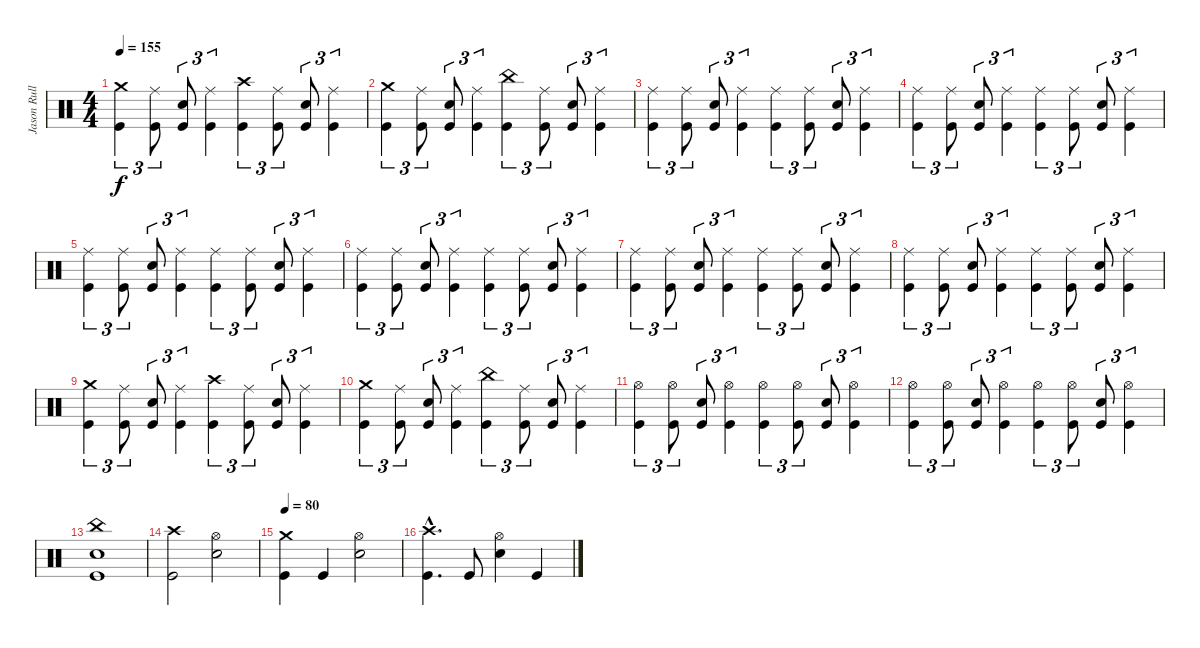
\track ("Jason Rullo - BATTERIE" "Jason Rull") {instrument percussion}
\staff {score}
\articulation defaults
\ts (4 4)
\tempo 155
\clef neutral
\ks c
("Crash medium (hit)" "Kick (hit)").4{tu (3 2) dy f} ("Ride (middle)" "Kick (hit)").8{tu (3 2)} ("Snare (hit) 2" "Kick (hit)").8{tu (3 2)} ("Ride (middle)" "Kick (hit)").4{tu (3 2)} ("Crash high (hit)" "Kick (hit)").4{tu (3 2)} ("Ride (middle)" "Kick (hit)").8{tu (3 2)} ("Snare (hit) 2" "Kick (hit)").8{tu (3 2)} ("Ride (middle)" "Kick (hit)").4{tu (3 2)} |
("Crash medium (hit)" "Kick (hit)").4{tu (3 2)} ("Ride (middle)" "Kick (hit)").8{tu (3 2)} ("Snare (hit) 2" "Kick (hit)").8{tu (3 2)} ("Ride (middle)" "Kick (hit)").4{tu (3 2)} ("China (hit)" "Kick (hit)").4{tu (3 2)} ("Ride (middle)" "Kick (hit)").8{tu (3 2)} ("Snare (hit) 2" "Kick (hit)").8{tu (3 2)} ("Ride (middle)" "Kick (hit)").4{tu (3 2)} |
("Ride (middle)" "Kick (hit)").4{tu (3 2)} ("Ride (middle)" "Kick (hit)").8{tu (3 2)} ("Snare (hit) 2" "Kick (hit)").8{tu (3 2)} ("Ride (middle)" "Kick (hit)").4{tu (3 2)} ("Ride (middle)" "Kick (hit)").4{tu (3 2)} ("Ride (middle)" "Kick (hit)").8{tu (3 2)} ("Snare (hit) 2" "Kick (hit)").8{tu (3 2)} ("Ride (middle)" "Kick (hit)").4{tu (3 2)} |
("Ride (middle)" "Kick (hit)").4{tu (3 2)} ("Ride (middle)" "Kick (hit)").8{tu (3 2)} ("Snare (hit) 2" "Kick (hit)").8{tu (3 2)} ("Ride (middle)" "Kick (hit)").4{tu (3 2)} ("Ride (middle)" "Kick (hit)").4{tu (3 2)} ("Ride (middle)" "Kick (hit)").8{tu (3 2)} ("Snare (hit) 2" "Kick (hit)").8{tu (3 2)} ("Ride (middle)" "Kick (hit)").4{tu (3 2)} |
("Ride (middle)" "Kick (hit)").4{tu (3 2)} ("Ride (middle)" "Kick (hit)").8{tu (3 2)} ("Snare (hit) 2" "Kick (hit)").8{tu (3 2)} ("Ride (middle)" "Kick (hit)").4{tu (3 2)} ("Ride (middle)" "Kick (hit)").4{tu (3 2)} ("Ride (middle)" "Kick (hit)").8{tu (3 2)} ("Snare (hit) 2" "Kick (hit)").8{tu (3 2)} ("Ride (middle)" "Kick (hit)").4{tu (3 2)} |
("Ride (middle)" "Kick (hit)").4{tu (3 2)} ("Ride (middle)" "Kick (hit)").8{tu (3 2)} ("Snare (hit) 2" "Kick (hit)").8{tu (3 2)} ("Ride (middle)" "Kick (hit)").4{tu (3 2)} ("Ride (middle)" "Kick (hit)").4{tu (3 2)} ("Ride (middle)" "Kick (hit)").8{tu (3 2)} ("Snare (hit) 2" "Kick (hit)").8{tu (3 2)} ("Ride (middle)" "Kick (hit)").4{tu (3 2)} |
("Ride (middle)" "Kick (hit)").4{tu (3 2)} ("Ride (middle)" "Kick (hit)").8{tu (3 2)} ("Snare (hit) 2" "Kick (hit)").8{tu (3 2)} ("Ride (middle)" "Kick (hit)").4{tu (3 2)} ("Ride (middle)" "Kick (hit)").4{tu (3 2)} ("Ride (middle)" "Kick (hit)").8{tu (3 2)} ("Snare (hit) 2" "Kick (hit)").8{tu (3 2)} ("Ride (middle)" "Kick (hit)").4{tu (3 2)} |
("Ride (middle)" "Kick (hit)").4{tu (3 2)} ("Ride (middle)" "Kick (hit)").8{tu (3 2)} ("Snare (hit) 2" "Kick (hit)").8{tu (3 2)} ("Ride (middle)" "Kick (hit)").4{tu (3 2)} ("Ride (middle)" "Kick (hit)").4{tu (3 2)} ("Ride (middle)" "Kick (hit)").8{tu (3 2)} ("Snare (hit) 2" "Kick (hit)").8{tu (3 2)} ("Ride (middle)" "Kick (hit)").4{tu (3 2)} |
("Crash medium (hit)" "Kick (hit)").4{tu (3 2)} ("Ride (middle)" "Kick (hit)").8{tu (3 2)} ("Snare (hit) 2" "Kick (hit)").8{tu (3 2)} ("Ride (middle)" "Kick (hit)").4{tu (3 2)} ("Crash high (hit)" "Kick (hit)").4{tu (3 2)} ("Ride (middle)" "Kick (hit)").8{tu (3 2)} ("Snare (hit) 2" "Kick (hit)").8{tu (3 2)} ("Ride (middle)" "Kick (hit)").4{tu (3 2)} |
("Crash medium (hit)" "Kick (hit)").4{tu (3 2)} ("Ride (middle)" "Kick (hit)").8{tu (3 2)} ("Snare (hit) 2" "Kick (hit)").8{tu (3 2)} ("Ride (middle)" "Kick (hit)").4{tu (3 2)} ("China (hit)" "Kick (hit)").4{tu (3 2)} ("Ride (middle)" "Kick (hit)").8{tu (3 2)} ("Snare (hit) 2" "Kick (hit)").8{tu (3 2)} ("Ride (middle)" "Kick (hit)").4{tu (3 2)} |
("Hi-Hat (open)" "Kick (hit)").4{tu (3 2)} ("Hi-Hat (open)" "Kick (hit)").8{tu (3 2)} ("Snare (hit) 2" "Kick (hit)").8{tu (3 2)} ("Hi-Hat (open)" "Kick (hit)").4{tu (3 2)} ("Hi-Hat (open)" "Kick (hit)").4{tu (3 2)} ("Hi-Hat (open)" "Kick (hit)").8{tu (3 2)} ("Snare (hit) 2" "Kick (hit)").8{tu (3 2)} ("Hi-Hat (open)" "Kick (hit)").4{tu (3 2)} |
("Hi-Hat (open)" "Kick (hit)").4{tu (3 2)} ("Hi-Hat (open)" "Kick (hit)").8{tu (3 2)} ("Snare (hit) 2" "Kick (hit)").8{tu (3 2)} ("Hi-Hat (open)" "Kick (hit)").4{tu (3 2)} ("Hi-Hat (open)" "Kick (hit)").4{tu (3 2)} ("Hi-Hat (open)" "Kick (hit)").8{tu (3 2)} ("Snare (hit) 2" "Kick (hit)").8{tu (3 2)} ("Hi-Hat (open)" "Kick (hit)").4{tu (3 2)} |
("China (hit)" "Snare (hit) 2" "Kick (hit)").1 |
("Crash high (hit)" "Kick (hit)").2 ("Hi-Hat (open)" "Snare (hit) 2").2 |
\tempo 80
("Crash medium (hit)" "Kick (hit)").4 "Kick (hit)".4 ("Hi-Hat (open)" "Snare (hit) 2").2 |
("Crash high (hit)"{hac} "Kick (hit)"{hac}).4{d} "Kick (hit)".8 ("Hi-Hat (open)" "Snare (hit) 2").4 "Kick (hit)".4
